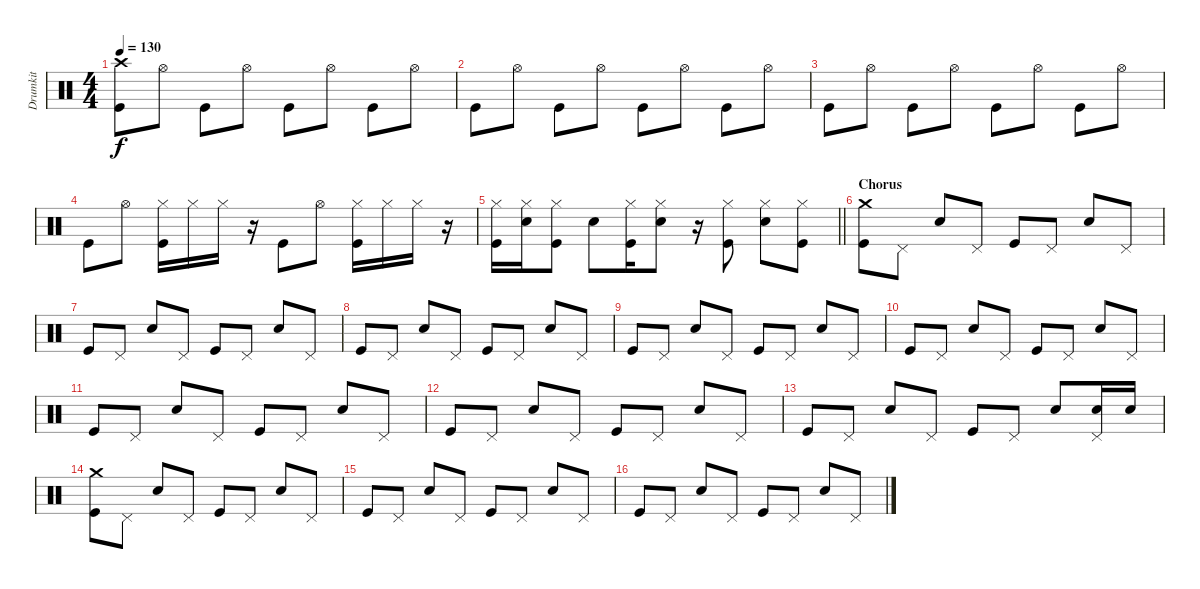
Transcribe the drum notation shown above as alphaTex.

\track ("Drumkit" "Drumkit") {instrument percussion}
\staff {score}
\articulation defaults
\ts (4 4)
\tempo 130
\clef neutral
\ks c
("Kick (hit)" "Crash high (hit)").8{dy f} "Hi-Hat (open)".8 "Kick (hit)".8 "Hi-Hat (open)".8 "Kick (hit)".8 "Hi-Hat (open)".8 "Kick (hit)".8 "Hi-Hat (open)".8 |
"Kick (hit)".8 "Hi-Hat (open)".8 "Kick (hit)".8 "Hi-Hat (open)".8 "Kick (hit)".8 "Hi-Hat (open)".8 "Kick (hit)".8 "Hi-Hat (open)".8 |
"Kick (hit)".8 "Hi-Hat (open)".8 "Kick (hit)".8 "Hi-Hat (open)".8 "Kick (hit)".8 "Hi-Hat (open)".8 "Kick (hit)".8 "Hi-Hat (open)".8 |
"Kick (hit)".8 "Hi-Hat (open)".8 ("Kick (hit)" "Hi-Hat (closed)").16 "Hi-Hat (closed)".16 "Hi-Hat (closed)".16 r.16 "Kick (hit)".8 "Hi-Hat (open)".8 ("Kick (hit)" "Hi-Hat (closed)").16 "Hi-Hat (closed)".16 "Hi-Hat (closed)".16 r.16 |
\barLineRight lightlight
("Kick (hit)" "Hi-Hat (closed)").16 ("Snare (hit) 2" "Hi-Hat (closed)").16 ("Kick (hit)" "Hi-Hat (closed)").8 "Snare (hit) 2".8 ("Kick (hit)" "Hi-Hat (closed)").16 ("Snare (hit) 2" "Hi-Hat (closed)").8 r.16 ("Kick (hit)" "Hi-Hat (closed)").8 ("Snare (hit) 2" "Hi-Hat (closed)").8 ("Kick (hit)" "Hi-Hat (closed)").8 |
\section ("" "Chorus")
("Kick (hit)" "Crash medium (hit)").8 "Pedal Hi-Hat (hit)".8 "Snare (hit) 2".8 "Pedal Hi-Hat (hit)".8 "Kick (hit)".8 "Pedal Hi-Hat (hit)".8 "Snare (hit) 2".8 "Pedal Hi-Hat (hit)".8 |
"Kick (hit)".8 "Pedal Hi-Hat (hit)".8 "Snare (hit) 2".8 "Pedal Hi-Hat (hit)".8 "Kick (hit)".8 "Pedal Hi-Hat (hit)".8 "Snare (hit) 2".8 "Pedal Hi-Hat (hit)".8 |
"Kick (hit)".8 "Pedal Hi-Hat (hit)".8 "Snare (hit) 2".8 "Pedal Hi-Hat (hit)".8 "Kick (hit)".8 "Pedal Hi-Hat (hit)".8 "Snare (hit) 2".8 "Pedal Hi-Hat (hit)".8 |
"Kick (hit)".8 "Pedal Hi-Hat (hit)".8 "Snare (hit) 2".8 "Pedal Hi-Hat (hit)".8 "Kick (hit)".8 "Pedal Hi-Hat (hit)".8 "Snare (hit) 2".8 "Pedal Hi-Hat (hit)".8 |
"Kick (hit)".8 "Pedal Hi-Hat (hit)".8 "Snare (hit) 2".8 "Pedal Hi-Hat (hit)".8 "Kick (hit)".8 "Pedal Hi-Hat (hit)".8 "Snare (hit) 2".8 "Pedal Hi-Hat (hit)".8 |
"Kick (hit)".8 "Pedal Hi-Hat (hit)".8 "Snare (hit) 2".8 "Pedal Hi-Hat (hit)".8 "Kick (hit)".8 "Pedal Hi-Hat (hit)".8 "Snare (hit) 2".8 "Pedal Hi-Hat (hit)".8 |
"Kick (hit)".8 "Pedal Hi-Hat (hit)".8 "Snare (hit) 2".8 "Pedal Hi-Hat (hit)".8 "Kick (hit)".8 "Pedal Hi-Hat (hit)".8 "Snare (hit) 2".8 "Pedal Hi-Hat (hit)".8 |
"Kick (hit)".8 "Pedal Hi-Hat (hit)".8 "Snare (hit) 2".8 "Pedal Hi-Hat (hit)".8 "Kick (hit)".8 "Pedal Hi-Hat (hit)".8 "Snare (hit) 2".8 ("Snare (hit) 2" "Pedal Hi-Hat (hit)").16 "Snare (hit) 2".16 |
("Kick (hit)" "Crash medium (hit)").8 "Pedal Hi-Hat (hit)".8 "Snare (hit) 2".8 "Pedal Hi-Hat (hit)".8 "Kick (hit)".8 "Pedal Hi-Hat (hit)".8 "Snare (hit) 2".8 "Pedal Hi-Hat (hit)".8 |
"Kick (hit)".8 "Pedal Hi-Hat (hit)".8 "Snare (hit) 2".8 "Pedal Hi-Hat (hit)".8 "Kick (hit)".8 "Pedal Hi-Hat (hit)".8 "Snare (hit) 2".8 "Pedal Hi-Hat (hit)".8 |
"Kick (hit)".8 "Pedal Hi-Hat (hit)".8 "Snare (hit) 2".8 "Pedal Hi-Hat (hit)".8 "Kick (hit)".8 "Pedal Hi-Hat (hit)".8 "Snare (hit) 2".8 "Pedal Hi-Hat (hit)".8
